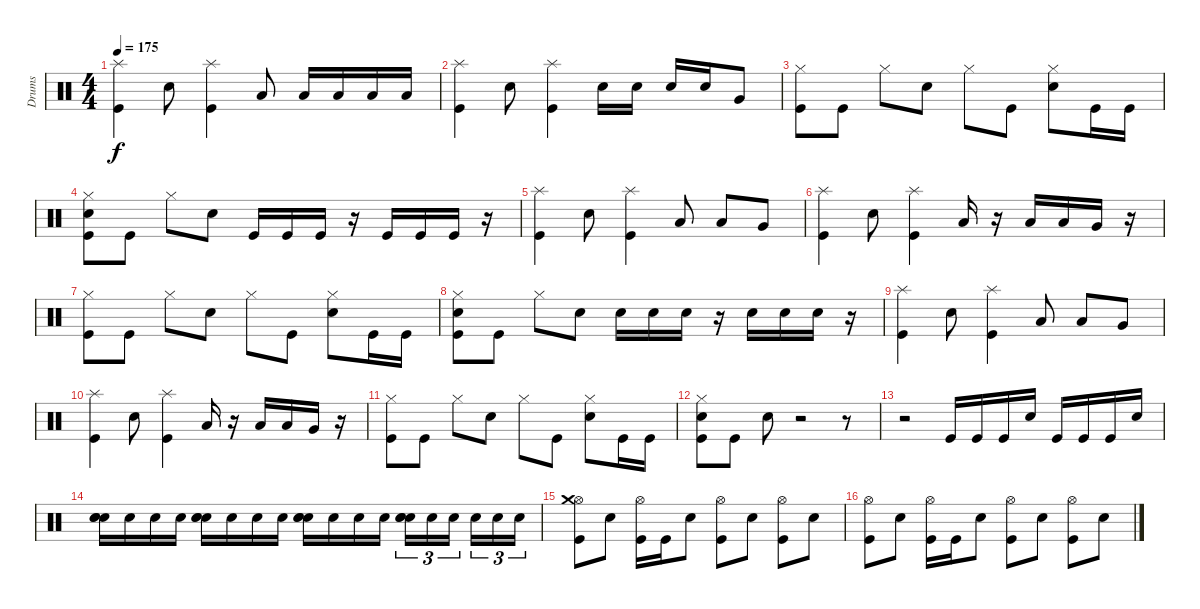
\track ("Drums" "Drums") {instrument percussion}
\staff {score}
\articulation defaults
\ts (4 4)
\tempo 175
\clef neutral
\ks c
("Splash (hit)" "Kick (hit)").4{dy f} "Snare (hit) 2".8 ("Splash (hit)" "Kick (hit)").4 "Low Tom (hit)".8 "Low Floor Tom (hit)".16 "Low Floor Tom (hit)".16 "Low Floor Tom (hit)".16 "Low Floor Tom (hit)".16 |
("Splash (hit)" "Kick (hit)").4 "Snare (hit) 2".8 ("Splash (hit)" "Kick (hit)").4 "Snare (hit) 2".16 "Snare (hit) 2".16 "Snare (hit) 2".16 "Snare (hit) 2".16 "Very Low Tom (hit)".8 |
("Hi-Hat (closed)" "Kick (hit)").8 "Kick (hit)".8 "Hi-Hat (closed)".8 "Snare (hit) 2".8 "Hi-Hat (closed)".8 "Kick (hit)".8 ("Hi-Hat (closed)" "Snare (hit) 2").8 "Kick (hit)".16 "Kick (hit)".16 |
("Hi-Hat (closed)" "Snare (hit) 2" "Kick (hit)").8 "Kick (hit)".8 "Hi-Hat (closed)".8 "Snare (hit) 2".8 "Kick (hit)".16 "Kick (hit)".16 "Kick (hit)".16 r.16 "Kick (hit)".16 "Kick (hit)".16 "Kick (hit)".16 r.16 |
("Splash (hit)" "Kick (hit)").4 "Snare (hit) 2".8 ("Splash (hit)" "Kick (hit)").4 "Low Tom (hit)".8 "Low Tom (hit)".8 "Very Low Tom (hit)".8 |
("Splash (hit)" "Kick (hit)").4 "Snare (hit) 2".8 ("Splash (hit)" "Kick (hit)").4 "Low Tom (hit)".16 r.16 "Low Tom (hit)".16 "Low Tom (hit)".16 "Very Low Tom (hit)".16 r.16 |
("Hi-Hat (closed)" "Kick (hit)").8 "Kick (hit)".8 "Hi-Hat (closed)".8 "Snare (hit) 2".8 "Hi-Hat (closed)".8 "Kick (hit)".8 ("Hi-Hat (closed)" "Snare (hit) 2").8 "Kick (hit)".16 "Kick (hit)".16 |
("Hi-Hat (closed)" "Snare (hit) 2" "Kick (hit)").8 "Kick (hit)".8 "Hi-Hat (closed)".8 "Snare (hit) 2".8 "Snare (hit) 2".16 "Snare (hit) 2".16 "Snare (hit) 2".16 r.16 "Snare (hit) 2".16 "Snare (hit) 2".16 "Snare (hit) 2".16 r.16 |
("Splash (hit)" "Kick (hit)").4 "Snare (hit) 2".8 ("Splash (hit)" "Kick (hit)").4 "Low Tom (hit)".8 "Low Tom (hit)".8 "Very Low Tom (hit)".8 |
("Splash (hit)" "Kick (hit)").4 "Snare (hit) 2".8 ("Splash (hit)" "Kick (hit)").4 "Low Tom (hit)".16 r.16 "Low Tom (hit)".16 "Low Tom (hit)".16 "Very Low Tom (hit)".16 r.16 |
("Hi-Hat (closed)" "Kick (hit)").8 "Kick (hit)".8 "Hi-Hat (closed)".8 "Snare (hit) 2".8 "Hi-Hat (closed)".8 "Kick (hit)".8 ("Hi-Hat (closed)" "Snare (hit) 2").8 "Kick (hit)".16 "Kick (hit)".16 |
("Hi-Hat (closed)" "Snare (hit) 2" "Kick (hit)").8 "Kick (hit)".8 "Snare (hit) 2".8 r.2 r.8 |
r.2 "Kick (hit)".16 "Kick (hit)".16 "Kick (hit)".16 "Snare (hit) 2".16 "Kick (hit)".16 "Kick (hit)".16 "Kick (hit)".16 "Snare (hit) 2".16 |
("Snare (hit) 2" "Snare (hit) 2" "Snare (hit) 2").16 "Snare (hit) 2".16 "Snare (hit) 2".16 "Snare (hit) 2".16 ("Snare (hit) 2" "Snare (hit) 2" "Snare (hit) 2").16 "Snare (hit) 2".16 "Snare (hit) 2".16 "Snare (hit) 2".16 ("Snare (hit) 2" "Snare (hit) 2" "Snare (hit) 2").16 "Snare (hit) 2".16 "Snare (hit) 2".16 "Snare (hit) 2".16 ("Snare (hit) 2" "Snare (hit) 2" "Snare (hit) 2").16{tu (3 2)} "Snare (hit) 2".16{tu (3 2)} "Snare (hit) 2".16{tu (3 2)} "Snare (hit) 2".16{tu (3 2)} "Snare (hit) 2".16{tu (3 2)} "Snare (hit) 2".16{tu (3 2)} |
("Hi-Hat (open)" "Crash medium (hit)" "Kick (hit)").8 "Snare (hit) 2".8 ("Hi-Hat (open)" "Kick (hit)").16 "Kick (hit)".16 "Snare (hit) 2".8 ("Hi-Hat (open)" "Kick (hit)").8 "Snare (hit) 2".8 ("Hi-Hat (open)" "Kick (hit)").8 "Snare (hit) 2".8 |
("Hi-Hat (open)" "Kick (hit)").8 "Snare (hit) 2".8 ("Hi-Hat (open)" "Kick (hit)").16 "Kick (hit)".16 "Snare (hit) 2".8 ("Hi-Hat (open)" "Kick (hit)").8 "Snare (hit) 2".8 ("Hi-Hat (open)" "Kick (hit)").8 "Snare (hit) 2".8
